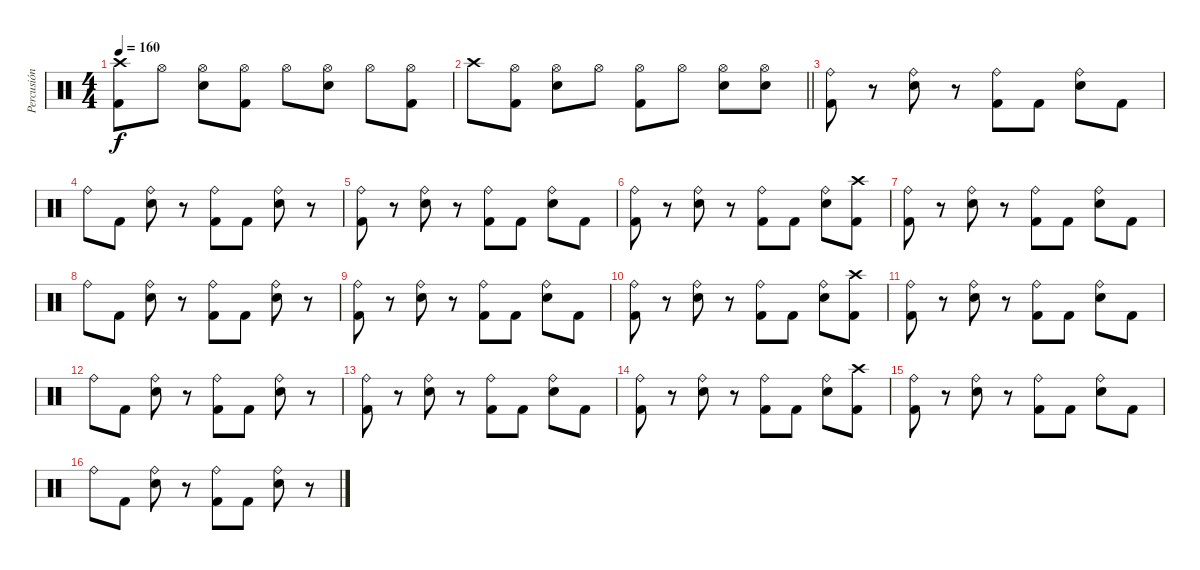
\track ("Percusión (Nevi)" "Percusión ") {instrument percussion}
\staff {score}
\articulation defaults
\ts (4 4)
\tempo 160
\clef neutral
\ks c
("Kick (hit) 2" "Crash high (hit)").8{dy f} "Hi-Hat (open)".8 ("Hi-Hat (open)" "Snare (hit) 2").8 ("Kick (hit) 2" "Hi-Hat (open)").8 "Hi-Hat (open)".8 ("Hi-Hat (open)" "Snare (hit) 2").8 "Hi-Hat (open)".8 ("Kick (hit) 2" "Hi-Hat (open)").8 |
\barLineRight lightlight "Crash high (hit)".8
("Kick (hit) 2" "Hi-Hat (open)").8 ("Hi-Hat (open)" "Snare (hit) 2").8 "Hi-Hat (open)".8 ("Kick (hit) 2" "Hi-Hat (open)").8 "Hi-Hat (open)".8 ("Hi-Hat (open)" "Snare (hit) 2").8 ("Hi-Hat (open)" "Snare (hit) 2").8 |
("Kick (hit) 2" "Ride (bell)").8 r.8 ("Ride (bell)" "Snare (hit) 2").8 r.8 ("Kick (hit) 2" "Ride (bell)").8 "Kick (hit) 2".8 ("Ride (bell)" "Snare (hit) 2").8 "Kick (hit) 2".8 |
"Ride (bell)".8 "Kick (hit) 2".8 ("Ride (bell)" "Snare (hit) 2").8 r.8 ("Kick (hit) 2" "Ride (bell)").8 "Kick (hit) 2".8 ("Ride (bell)" "Snare (hit) 2").8 r.8 |
("Kick (hit) 2" "Ride (bell)").8 r.8 ("Ride (bell)" "Snare (hit) 2").8 r.8 ("Kick (hit) 2" "Ride (bell)").8 "Kick (hit) 2".8 ("Ride (bell)" "Snare (hit) 2").8 "Kick (hit) 2".8 |
("Kick (hit) 2" "Ride (bell)").8 r.8 ("Ride (bell)" "Snare (hit) 2").8 r.8 ("Kick (hit) 2" "Ride (bell)").8 "Kick (hit) 2".8 ("Ride (bell)" "Snare (hit) 2").8 ("Kick (hit) 2" "Crash high (hit)").8 |
("Kick (hit) 2" "Ride (bell)").8 r.8 ("Ride (bell)" "Snare (hit) 2").8 r.8 ("Kick (hit) 2" "Ride (bell)").8 "Kick (hit) 2".8 ("Ride (bell)" "Snare (hit) 2").8 "Kick (hit) 2".8 |
"Ride (bell)".8 "Kick (hit) 2".8 ("Ride (bell)" "Snare (hit) 2").8 r.8 ("Kick (hit) 2" "Ride (bell)").8 "Kick (hit) 2".8 ("Ride (bell)" "Snare (hit) 2").8 r.8 |
("Kick (hit) 2" "Ride (bell)").8 r.8 ("Ride (bell)" "Snare (hit) 2").8 r.8 ("Kick (hit) 2" "Ride (bell)").8 "Kick (hit) 2".8 ("Ride (bell)" "Snare (hit) 2").8 "Kick (hit) 2".8 |
("Kick (hit) 2" "Ride (bell)").8 r.8 ("Ride (bell)" "Snare (hit) 2").8 r.8 ("Kick (hit) 2" "Ride (bell)").8 "Kick (hit) 2".8 ("Ride (bell)" "Snare (hit) 2").8 ("Kick (hit) 2" "Crash high (hit)").8 |
("Kick (hit) 2" "Ride (bell)").8 r.8 ("Ride (bell)" "Snare (hit) 2").8 r.8 ("Kick (hit) 2" "Ride (bell)").8 "Kick (hit) 2".8 ("Ride (bell)" "Snare (hit) 2").8 "Kick (hit) 2".8 |
"Ride (bell)".8 "Kick (hit) 2".8 ("Ride (bell)" "Snare (hit) 2").8 r.8 ("Kick (hit) 2" "Ride (bell)").8 "Kick (hit) 2".8 ("Ride (bell)" "Snare (hit) 2").8 r.8 |
("Kick (hit) 2" "Ride (bell)").8 r.8 ("Ride (bell)" "Snare (hit) 2").8 r.8 ("Kick (hit) 2" "Ride (bell)").8 "Kick (hit) 2".8 ("Ride (bell)" "Snare (hit) 2").8 "Kick (hit) 2".8 |
("Kick (hit) 2" "Ride (bell)").8 r.8 ("Ride (bell)" "Snare (hit) 2").8 r.8 ("Kick (hit) 2" "Ride (bell)").8 "Kick (hit) 2".8 ("Ride (bell)" "Snare (hit) 2").8 ("Kick (hit) 2" "Crash high (hit)").8 |
("Kick (hit) 2" "Ride (bell)").8 r.8 ("Ride (bell)" "Snare (hit) 2").8 r.8 ("Kick (hit) 2" "Ride (bell)").8 "Kick (hit) 2".8 ("Ride (bell)" "Snare (hit) 2").8 "Kick (hit) 2".8 |
"Ride (bell)".8 "Kick (hit) 2".8 ("Ride (bell)" "Snare (hit) 2").8 r.8 ("Kick (hit) 2" "Ride (bell)").8 "Kick (hit) 2".8 ("Ride (bell)" "Snare (hit) 2").8 r.8
